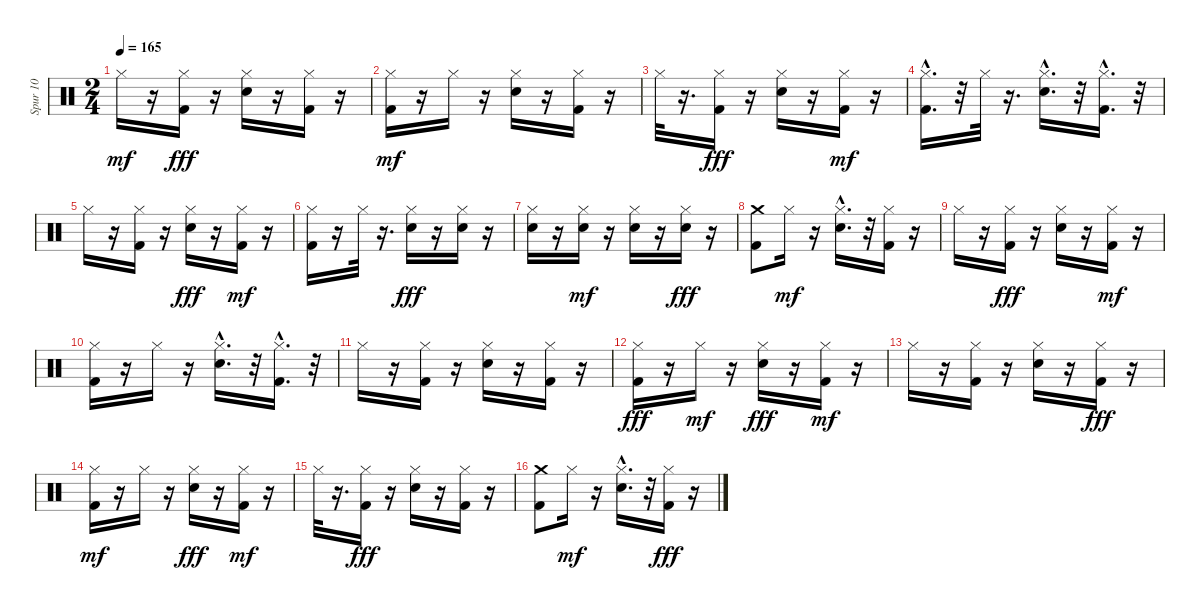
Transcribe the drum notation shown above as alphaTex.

\track ("Spur 10" "Spur 10") {instrument percussion}
\staff {score}
\articulation defaults
\ts (2 4)
\tempo 165
\clef neutral
\ks c "Hi-Hat (closed)".16{dy mf}
r.16 ("Hi-Hat (closed)" "Kick (hit) 2").16{dy fff} r.16 ("Hi-Hat (closed)" "Electric Snare (hit)").16 r.16 ("Hi-Hat (closed)" "Kick (hit) 2").16 r.16 |
("Kick (hit) 2" "Hi-Hat (closed)").16{dy mf} r.16 "Hi-Hat (closed)".16 r.16 ("Electric Snare (hit)" "Hi-Hat (closed)").16 r.16 ("Kick (hit) 2" "Hi-Hat (closed)").16 r.16 |
"Hi-Hat (closed)".32 r.16{d} ("Hi-Hat (closed)" "Kick (hit) 2").16{dy fff} r.16 ("Hi-Hat (closed)" "Electric Snare (hit)").16 r.16 ("Kick (hit) 2" "Hi-Hat (closed)").16{dy mf} r.16 |
("Kick (hit) 2"{hac} "Hi-Hat (closed)").16{d} r.32 "Hi-Hat (closed)".32 r.16{d} ("Electric Snare (hit)"{hac} "Hi-Hat (closed)").16{d} r.32 ("Kick (hit) 2"{hac} "Hi-Hat (closed)").16{d} r.32 |
"Hi-Hat (closed)".16 r.16 ("Kick (hit) 2" "Hi-Hat (closed)").16 r.16 ("Hi-Hat (closed)" "Electric Snare (hit)").16{dy fff} r.16 ("Kick (hit) 2" "Hi-Hat (closed)").16{dy mf} r.16 |
("Kick (hit) 2" "Hi-Hat (closed)").16 r.16 "Hi-Hat (closed)".32 r.16{d} ("Hi-Hat (closed)" "Electric Snare (hit)").16{dy fff} r.16 ("Hi-Hat (closed)" "Snare (hit) 2").16 r.16 |
("Hi-Hat (closed)" "Snare (hit) 2").16 r.16 ("Snare (hit) 2" "Hi-Hat (closed)").16{dy mf} r.16 ("Snare (hit) 2" "Hi-Hat (closed)").16 r.16 ("Hi-Hat (closed)" "Snare (hit) 2").16{dy fff} r.16 |
("Crash medium (hit)" "Kick (hit) 2").8 "Hi-Hat (closed)".16{dy mf} r.16 ("Electric Snare (hit)"{hac} "Hi-Hat (closed)").16{d} r.32 ("Kick (hit) 2" "Hi-Hat (closed)").16 r.16 |
"Hi-Hat (closed)".16 r.16 ("Hi-Hat (closed)" "Kick (hit) 2").16{dy fff} r.16 ("Hi-Hat (closed)" "Electric Snare (hit)").16 r.16 ("Kick (hit) 2" "Hi-Hat (closed)").16{dy mf} r.16 |
("Kick (hit) 2" "Hi-Hat (closed)").16 r.16 "Hi-Hat (closed)".16 r.16 ("Electric Snare (hit)"{hac} "Hi-Hat (closed)").16{d} r.32 ("Kick (hit) 2"{hac} "Hi-Hat (closed)").16{d} r.32 |
"Hi-Hat (closed)".16 r.16 ("Kick (hit) 2" "Hi-Hat (closed)").16 r.16 ("Electric Snare (hit)" "Hi-Hat (closed)").16 r.16 ("Kick (hit) 2" "Hi-Hat (closed)").16 r.16 |
("Hi-Hat (closed)" "Kick (hit) 2").16{dy fff} r.16 "Hi-Hat (closed)".16{dy mf} r.16 ("Hi-Hat (closed)" "Electric Snare (hit)").16{dy fff} r.16 ("Kick (hit) 2" "Hi-Hat (closed)").16{dy mf} r.16 |
"Hi-Hat (closed)".16 r.16 ("Kick (hit) 2" "Hi-Hat (closed)").16 r.16 ("Electric Snare (hit)" "Hi-Hat (closed)").16 r.16 ("Hi-Hat (closed)" "Kick (hit) 2").16{dy fff} r.16 |
("Kick (hit) 2" "Hi-Hat (closed)").16{dy mf} r.16 "Hi-Hat (closed)".16 r.16 ("Hi-Hat (closed)" "Electric Snare (hit)").16{dy fff} r.16 ("Kick (hit) 2" "Hi-Hat (closed)").16{dy mf} r.16 |
"Hi-Hat (closed)".32 r.16{d} ("Hi-Hat (closed)" "Kick (hit) 2").16{dy fff} r.16 ("Hi-Hat (closed)" "Electric Snare (hit)").16 r.16 ("Hi-Hat (closed)" "Kick (hit) 2").16 r.16 |
("Crash medium (hit)" "Kick (hit) 2").8 "Hi-Hat (closed)".16{dy mf} r.16 ("Electric Snare (hit)"{hac} "Hi-Hat (closed)").16{d} r.32 ("Hi-Hat (closed)" "Kick (hit) 2").16{dy fff} r.16
